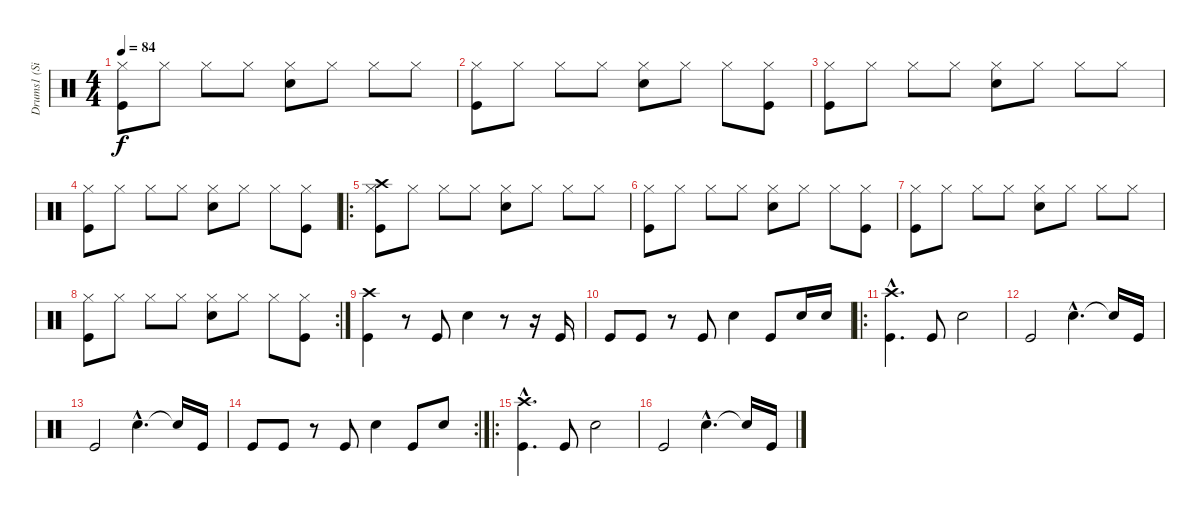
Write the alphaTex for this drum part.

\track ("Drums1 (Silas)" "Drums1 (Si") {instrument percussion}
\staff {score}
\articulation defaults
\ts (4 4)
\tempo 84
\clef neutral
\ks c
("Hi-Hat (closed)" "Kick (hit)").8{dy f} "Hi-Hat (closed)".8 "Hi-Hat (closed)".8 "Hi-Hat (closed)".8 ("Hi-Hat (closed)" "Snare (hit) 2").8 "Hi-Hat (closed)".8 "Hi-Hat (closed)".8 "Hi-Hat (closed)".8 |
("Hi-Hat (closed)" "Kick (hit)").8 "Hi-Hat (closed)".8 "Hi-Hat (closed)".8 "Hi-Hat (closed)".8 ("Hi-Hat (closed)" "Snare (hit) 2").8 "Hi-Hat (closed)".8 "Hi-Hat (closed)".8 ("Hi-Hat (closed)" "Kick (hit)").8 |
("Hi-Hat (closed)" "Kick (hit)").8 "Hi-Hat (closed)".8 "Hi-Hat (closed)".8 "Hi-Hat (closed)".8 ("Hi-Hat (closed)" "Snare (hit) 2").8 "Hi-Hat (closed)".8 "Hi-Hat (closed)".8 "Hi-Hat (closed)".8 |
("Hi-Hat (closed)" "Kick (hit)").8 "Hi-Hat (closed)".8 "Hi-Hat (closed)".8 "Hi-Hat (closed)".8 ("Hi-Hat (closed)" "Snare (hit) 2").8 "Hi-Hat (closed)".8 "Hi-Hat (closed)".8 ("Hi-Hat (closed)" "Kick (hit)").8 |
\ro
("Hi-Hat (closed)" "Kick (hit)" "Crash high (hit)").8 "Hi-Hat (closed)".8 "Hi-Hat (closed)".8 "Hi-Hat (closed)".8 ("Hi-Hat (closed)" "Snare (hit) 2").8 "Hi-Hat (closed)".8 "Hi-Hat (closed)".8 "Hi-Hat (closed)".8 |
("Hi-Hat (closed)" "Kick (hit)").8 "Hi-Hat (closed)".8 "Hi-Hat (closed)".8 "Hi-Hat (closed)".8 ("Hi-Hat (closed)" "Snare (hit) 2").8 "Hi-Hat (closed)".8 "Hi-Hat (closed)".8 ("Hi-Hat (closed)" "Kick (hit)").8 |
("Hi-Hat (closed)" "Kick (hit)").8 "Hi-Hat (closed)".8 "Hi-Hat (closed)".8 "Hi-Hat (closed)".8 ("Hi-Hat (closed)" "Snare (hit) 2").8 "Hi-Hat (closed)".8 "Hi-Hat (closed)".8 "Hi-Hat (closed)".8 |
\rc 2
("Hi-Hat (closed)" "Kick (hit)").8 "Hi-Hat (closed)".8 "Hi-Hat (closed)".8 "Hi-Hat (closed)".8 ("Hi-Hat (closed)" "Snare (hit) 2").8 "Hi-Hat (closed)".8 "Hi-Hat (closed)".8 ("Hi-Hat (closed)" "Kick (hit)").8 |
("Kick (hit)" "Crash high (hit)").4 r.8 "Kick (hit)".8 "Snare (hit) 2".4 r.8 r.16 "Kick (hit)".16 |
"Kick (hit)".8 "Kick (hit)".8 r.8 "Kick (hit)".8 "Snare (hit) 2".4 "Kick (hit)".8 "Snare (hit) 2".16 "Snare (hit) 2".16 |
\ro
("Kick (hit)"{hac} "Crash high (hit)"{hac}).4{d} "Kick (hit)".8 "Snare (hit) 2".2 |
"Kick (hit)".2 "Snare (hit) 2"{hac}.4{d} "Snare (hit) 2"{t}.16 "Kick (hit)".16 |
"Kick (hit)".2 "Snare (hit) 2"{hac}.4{d} "Snare (hit) 2"{t}.16 "Kick (hit)".16 |
\rc 2 "Kick (hit)".8 "Kick (hit)".8
r.8 "Kick (hit)".8 "Snare (hit) 2".4 "Kick (hit)".8 "Snare (hit) 2".8 |
\ro
("Kick (hit)"{hac} "Crash high (hit)"{hac}).4{d} "Kick (hit)".8 "Snare (hit) 2".2 |
"Kick (hit)".2 "Snare (hit) 2"{hac}.4{d} "Snare (hit) 2"{t}.16 "Kick (hit)".16
